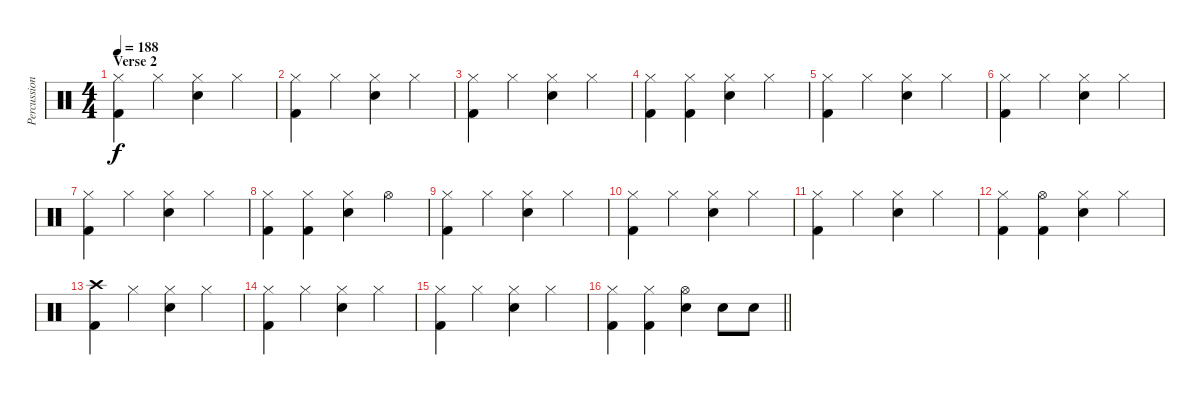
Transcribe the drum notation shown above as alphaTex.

\track ("Percussion" "Percussion") {instrument percussion}
\staff {score}
\articulation defaults
\ts (4 4)
\section ("" "Verse 2")
\tempo 188
\clef neutral
\ks c
("Hi-Hat (closed)" "Kick (hit) 2").4{dy f} "Hi-Hat (closed)".4 ("Hi-Hat (closed)" "Snare (hit) 2").4 "Hi-Hat (closed)".4 |
("Hi-Hat (closed)" "Kick (hit) 2").4 "Hi-Hat (closed)".4 ("Hi-Hat (closed)" "Snare (hit) 2").4 "Hi-Hat (closed)".4 |
("Hi-Hat (closed)" "Kick (hit) 2").4 "Hi-Hat (closed)".4 ("Hi-Hat (closed)" "Snare (hit) 2").4 "Hi-Hat (closed)".4 |
("Hi-Hat (closed)" "Kick (hit) 2").4 ("Hi-Hat (closed)" "Kick (hit) 2").4 ("Hi-Hat (closed)" "Snare (hit) 2").4 "Hi-Hat (closed)".4 |
("Hi-Hat (closed)" "Kick (hit) 2").4 "Hi-Hat (closed)".4 ("Hi-Hat (closed)" "Snare (hit) 2").4 "Hi-Hat (closed)".4 |
("Hi-Hat (closed)" "Kick (hit) 2").4 "Hi-Hat (closed)".4 ("Hi-Hat (closed)" "Snare (hit) 2").4 "Hi-Hat (closed)".4 |
("Hi-Hat (closed)" "Kick (hit) 2").4 "Hi-Hat (closed)".4 ("Hi-Hat (closed)" "Snare (hit) 2").4 "Hi-Hat (closed)".4 |
("Hi-Hat (closed)" "Kick (hit) 2").4 ("Hi-Hat (closed)" "Kick (hit) 2").4 ("Hi-Hat (closed)" "Snare (hit) 2").4 "Hi-Hat (open)".4 |
("Hi-Hat (closed)" "Kick (hit) 2").4 "Hi-Hat (closed)".4 ("Hi-Hat (closed)" "Snare (hit) 2").4 "Hi-Hat (closed)".4 |
("Hi-Hat (closed)" "Kick (hit) 2").4 "Hi-Hat (closed)".4 ("Hi-Hat (closed)" "Snare (hit) 2").4 "Hi-Hat (closed)".4 |
("Hi-Hat (closed)" "Kick (hit) 2").4 "Hi-Hat (closed)".4 ("Hi-Hat (closed)" "Snare (hit) 2").4 "Hi-Hat (closed)".4 |
("Hi-Hat (closed)" "Kick (hit) 2").4 ("Hi-Hat (open)" "Kick (hit) 2").4 ("Hi-Hat (closed)" "Snare (hit) 2").4 "Hi-Hat (closed)".4 |
("Crash high (hit)" "Kick (hit) 2").4 "Hi-Hat (closed)".4 ("Snare (hit) 2" "Hi-Hat (closed)").4 "Hi-Hat (closed)".4 |
("Hi-Hat (closed)" "Kick (hit) 2").4 "Hi-Hat (closed)".4 ("Hi-Hat (closed)" "Snare (hit) 2").4 "Hi-Hat (closed)".4 |
("Hi-Hat (closed)" "Kick (hit) 2").4 "Hi-Hat (closed)".4 ("Hi-Hat (closed)" "Snare (hit) 2").4 "Hi-Hat (closed)".4 |
\barLineRight lightlight
("Hi-Hat (closed)" "Kick (hit) 2").4 ("Hi-Hat (closed)" "Kick (hit) 2").4 ("Hi-Hat (open)" "Snare (hit) 2").4 "Snare (hit) 2".8 "Snare (hit) 2".8
